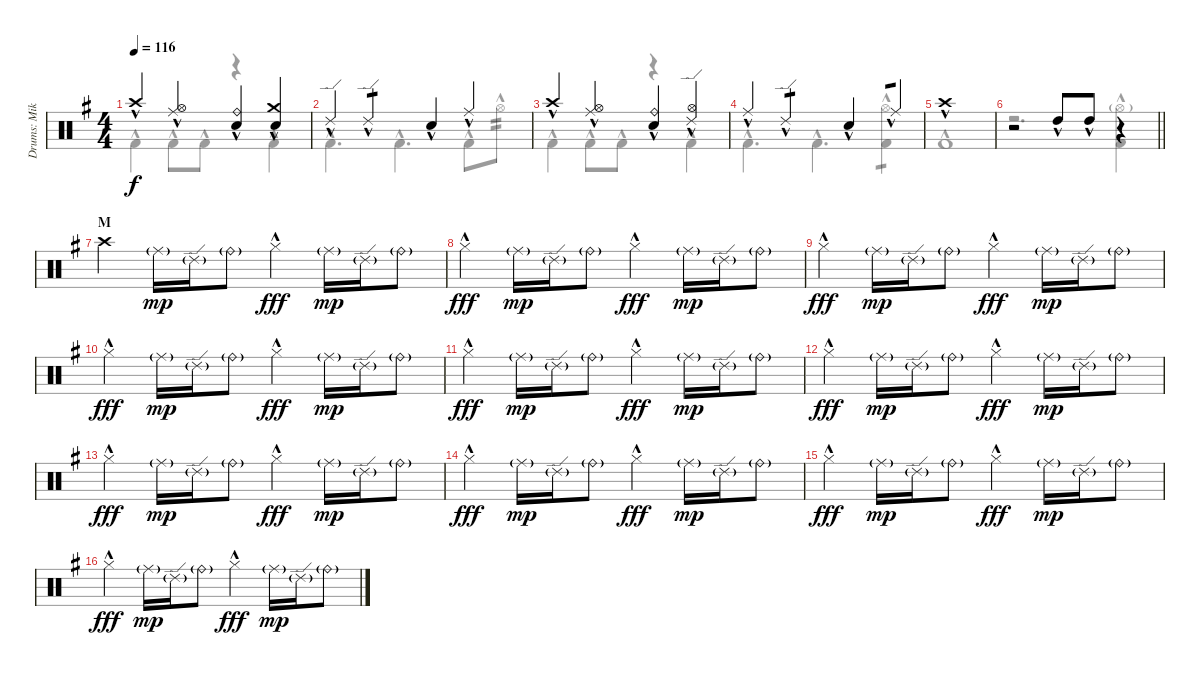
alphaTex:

\track ("Drums: Mike" "Drums: Mik") {instrument percussion}
\staff {score}
\articulation defaults
\voice
\ts (4 4)
\tempo 116
\clef neutral
\ks g "Crash high (hit)"{hac}.4{dy f}
("Ride (middle)"{hac} "Hi-Hat (open)"{hac}).4 ("Ride (bell)"{hac} "Snare (hit) 2"{hac}).4 ("Crash medium (hit)"{hac} "Snare (hit) 2"{hac}).4 |
"Ride (edge) 2"{hac}.4 "Ride (edge) 2"{hac}.4{tp 1} "Snare (hit) 2"{hac}.4 "Ride (middle)"{hac}.4 |
"Crash high (hit)"{hac}.4 ("Ride (middle)"{hac} "Hi-Hat (open)"{hac}).4 ("Ride (bell)"{hac} "Snare (hit) 2"{hac}).4 ("Ride (edge) 2"{hac} "Hi-Hat (open)"{hac}).4 |
"Ride (middle)"{hac}.4 "Ride (edge) 2"{hac}.4{tp 1} "Snare (hit) 2"{hac}.4 "Ride (middle)"{hac}.4{tp 1} |
"Crash high (hit)"{hac}.1 |
\barLineRight lightlight
r.2 "High Tom (hit)"{hac}.8 "High Tom (hit)"{hac}.8 r.4 |
\section ("" "M")
"Crash high (hit)".4 "Ride (middle)"{g}.16{dy mp} "Ride (edge) 2"{g}.16 "Ride (bell)"{g}.8 "Hi-Hat (closed)"{hac}.4{dy fff} "Ride (middle)"{g}.16{dy mp} "Ride (edge) 2"{g}.16 "Ride (bell)"{g}.8 |
"Hi-Hat (closed)"{hac}.4{dy fff} "Ride (middle)"{g}.16{dy mp} "Ride (edge) 2"{g}.16 "Ride (bell)"{g}.8 "Hi-Hat (closed)"{hac}.4{dy fff} "Ride (middle)"{g}.16{dy mp} "Ride (edge) 2"{g}.16 "Ride (bell)"{g}.8 |
"Hi-Hat (closed)"{hac}.4{dy fff} "Ride (middle)"{g}.16{dy mp} "Ride (edge) 2"{g}.16 "Ride (bell)"{g}.8 "Hi-Hat (closed)"{hac}.4{dy fff} "Ride (middle)"{g}.16{dy mp} "Ride (edge) 2"{g}.16 "Ride (bell)"{g}.8 |
"Hi-Hat (closed)"{hac}.4{dy fff} "Ride (middle)"{g}.16{dy mp} "Ride (edge) 2"{g}.16 "Ride (bell)"{g}.8 "Hi-Hat (closed)"{hac}.4{dy fff} "Ride (middle)"{g}.16{dy mp} "Ride (edge) 2"{g}.16 "Ride (bell)"{g}.8 |
"Hi-Hat (closed)"{hac}.4{dy fff} "Ride (middle)"{g}.16{dy mp} "Ride (edge) 2"{g}.16 "Ride (bell)"{g}.8 "Hi-Hat (closed)"{hac}.4{dy fff} "Ride (middle)"{g}.16{dy mp} "Ride (edge) 2"{g}.16 "Ride (bell)"{g}.8 |
"Hi-Hat (closed)"{hac}.4{dy fff} "Ride (middle)"{g}.16{dy mp} "Ride (edge) 2"{g}.16 "Ride (bell)"{g}.8 "Hi-Hat (closed)"{hac}.4{dy fff} "Ride (middle)"{g}.16{dy mp} "Ride (edge) 2"{g}.16 "Ride (bell)"{g}.8 |
"Hi-Hat (closed)"{hac}.4{dy fff} "Ride (middle)"{g}.16{dy mp} "Ride (edge) 2"{g}.16 "Ride (bell)"{g}.8 "Hi-Hat (closed)"{hac}.4{dy fff} "Ride (middle)"{g}.16{dy mp} "Ride (edge) 2"{g}.16 "Ride (bell)"{g}.8 |
"Hi-Hat (closed)"{hac}.4{dy fff} "Ride (middle)"{g}.16{dy mp} "Ride (edge) 2"{g}.16 "Ride (bell)"{g}.8 "Hi-Hat (closed)"{hac}.4{dy fff} "Ride (middle)"{g}.16{dy mp} "Ride (edge) 2"{g}.16 "Ride (bell)"{g}.8 |
"Hi-Hat (closed)"{hac}.4{dy fff} "Ride (middle)"{g}.16{dy mp} "Ride (edge) 2"{g}.16 "Ride (bell)"{g}.8 "Hi-Hat (closed)"{hac}.4{dy fff} "Ride (middle)"{g}.16{dy mp} "Ride (edge) 2"{g}.16 "Ride (bell)"{g}.8 |
"Hi-Hat (closed)"{hac}.4{dy fff} "Ride (middle)"{g}.16{dy mp} "Ride (edge) 2"{g}.16 "Ride (bell)"{g}.8 "Hi-Hat (closed)"{hac}.4{dy fff} "Ride (middle)"{g}.16{dy mp} "Ride (edge) 2"{g}.16 "Ride (bell)"{g}.8
\voice
\clef neutral
\ottava regular
\simile none
\ks g "Kick (hit) 2"{hac}.4{dy f} "Kick (hit) 2"{hac}.8 "Kick (hit) 2"{hac}.8
r.4 "Kick (hit) 2"{hac}.4 |
"Kick (hit) 2"{hac}.4{d} "Kick (hit) 2"{hac}.4{d} "Kick (hit) 2"{hac}.8 "Hi-Hat (open)"{hac}.8{tp 2} |
"Kick (hit) 2"{hac}.4 "Kick (hit) 2"{hac}.8 "Kick (hit) 2"{hac}.8 r.4 "Kick (hit) 2"{hac}.4 |
"Kick (hit) 2"{hac}.4{d} "Kick (hit) 2"{hac}.4{d} ("Hi-Hat (open)"{hac} "Kick (hit) 2"{hac}).4{tp 1} |
"Kick (hit) 2"{hac}.1 |
\barLineRight lightlight
r.2{d} ("Hi-Hat (open)"{g} "Kick (hit) 2"{hac}).4 |
|
|
|
|
|
|
|
|
|
